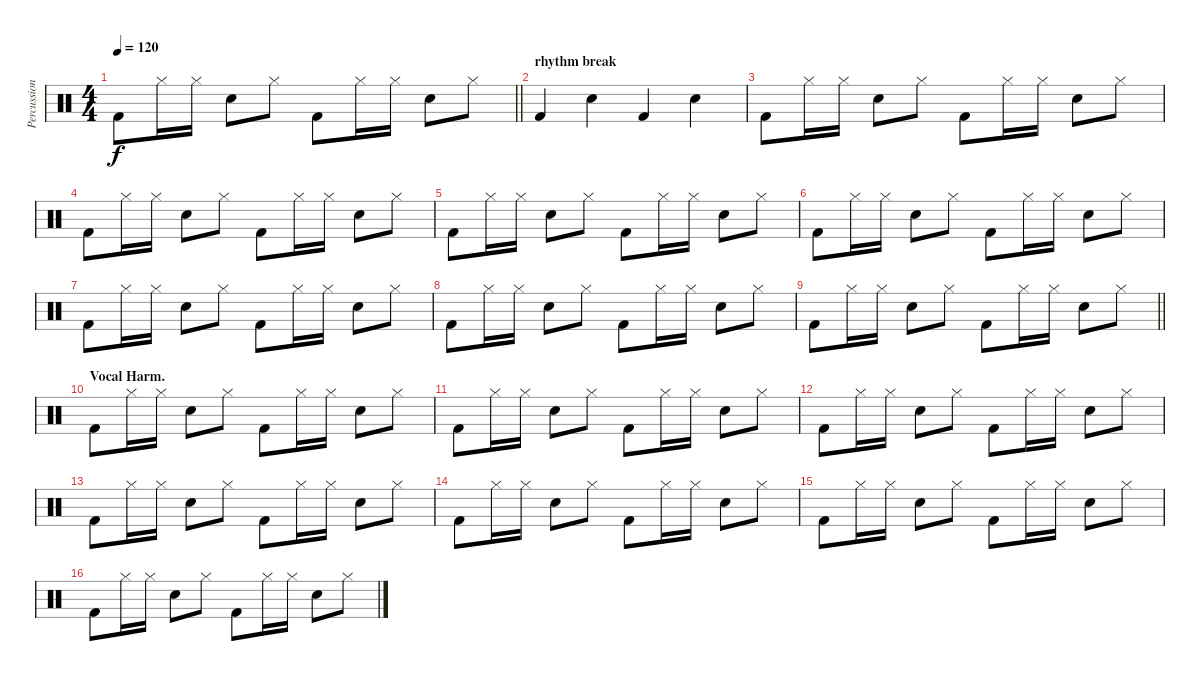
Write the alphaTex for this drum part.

\track ("Percussion" "Percussion") {instrument percussion}
\staff {score}
\articulation defaults
\ts (4 4)
\tempo 120
\clef neutral
\barLineRight lightlight
\ks c "Kick (hit) 2".8{dy f} "Hi-Hat (closed)".16 "Hi-Hat (closed)".16 "Snare (hit) 2".8 "Hi-Hat (closed)".8 "Kick (hit) 2".8 "Hi-Hat (closed)".16 "Hi-Hat (closed)".16 "Snare (hit) 2".8 "Hi-Hat (closed)".8
|
\section ("" "rhythm break")
"Kick (hit) 2".4 "Snare (hit) 2".4 "Kick (hit) 2".4 "Snare (hit) 2".4 |
"Kick (hit) 2".8 "Hi-Hat (closed)".16 "Hi-Hat (closed)".16 "Snare (hit) 2".8 "Hi-Hat (closed)".8 "Kick (hit) 2".8 "Hi-Hat (closed)".16 "Hi-Hat (closed)".16 "Snare (hit) 2".8 "Hi-Hat (closed)".8 |
"Kick (hit) 2".8 "Hi-Hat (closed)".16 "Hi-Hat (closed)".16 "Snare (hit) 2".8 "Hi-Hat (closed)".8 "Kick (hit) 2".8 "Hi-Hat (closed)".16 "Hi-Hat (closed)".16 "Snare (hit) 2".8 "Hi-Hat (closed)".8 |
"Kick (hit) 2".8 "Hi-Hat (closed)".16 "Hi-Hat (closed)".16 "Snare (hit) 2".8 "Hi-Hat (closed)".8 "Kick (hit) 2".8 "Hi-Hat (closed)".16 "Hi-Hat (closed)".16 "Snare (hit) 2".8 "Hi-Hat (closed)".8 |
"Kick (hit) 2".8 "Hi-Hat (closed)".16 "Hi-Hat (closed)".16 "Snare (hit) 2".8 "Hi-Hat (closed)".8 "Kick (hit) 2".8 "Hi-Hat (closed)".16 "Hi-Hat (closed)".16 "Snare (hit) 2".8 "Hi-Hat (closed)".8 |
"Kick (hit) 2".8 "Hi-Hat (closed)".16 "Hi-Hat (closed)".16 "Snare (hit) 2".8 "Hi-Hat (closed)".8 "Kick (hit) 2".8 "Hi-Hat (closed)".16 "Hi-Hat (closed)".16 "Snare (hit) 2".8 "Hi-Hat (closed)".8 |
"Kick (hit) 2".8 "Hi-Hat (closed)".16 "Hi-Hat (closed)".16 "Snare (hit) 2".8 "Hi-Hat (closed)".8 "Kick (hit) 2".8 "Hi-Hat (closed)".16 "Hi-Hat (closed)".16 "Snare (hit) 2".8 "Hi-Hat (closed)".8 |
\barLineRight lightlight "Kick (hit) 2".8 "Hi-Hat (closed)".16 "Hi-Hat (closed)".16 "Snare (hit) 2".8 "Hi-Hat (closed)".8 "Kick (hit) 2".8 "Hi-Hat (closed)".16 "Hi-Hat (closed)".16 "Snare (hit) 2".8 "Hi-Hat (closed)".8
|
\section ("" "Vocal Harm.")
"Kick (hit) 2".8 "Hi-Hat (closed)".16 "Hi-Hat (closed)".16 "Snare (hit) 2".8 "Hi-Hat (closed)".8 "Kick (hit) 2".8 "Hi-Hat (closed)".16 "Hi-Hat (closed)".16 "Snare (hit) 2".8 "Hi-Hat (closed)".8 |
"Kick (hit) 2".8 "Hi-Hat (closed)".16 "Hi-Hat (closed)".16 "Snare (hit) 2".8 "Hi-Hat (closed)".8 "Kick (hit) 2".8 "Hi-Hat (closed)".16 "Hi-Hat (closed)".16 "Snare (hit) 2".8 "Hi-Hat (closed)".8 |
"Kick (hit) 2".8 "Hi-Hat (closed)".16 "Hi-Hat (closed)".16 "Snare (hit) 2".8 "Hi-Hat (closed)".8 "Kick (hit) 2".8 "Hi-Hat (closed)".16 "Hi-Hat (closed)".16 "Snare (hit) 2".8 "Hi-Hat (closed)".8 |
"Kick (hit) 2".8 "Hi-Hat (closed)".16 "Hi-Hat (closed)".16 "Snare (hit) 2".8 "Hi-Hat (closed)".8 "Kick (hit) 2".8 "Hi-Hat (closed)".16 "Hi-Hat (closed)".16 "Snare (hit) 2".8 "Hi-Hat (closed)".8 |
"Kick (hit) 2".8 "Hi-Hat (closed)".16 "Hi-Hat (closed)".16 "Snare (hit) 2".8 "Hi-Hat (closed)".8 "Kick (hit) 2".8 "Hi-Hat (closed)".16 "Hi-Hat (closed)".16 "Snare (hit) 2".8 "Hi-Hat (closed)".8 |
"Kick (hit) 2".8 "Hi-Hat (closed)".16 "Hi-Hat (closed)".16 "Snare (hit) 2".8 "Hi-Hat (closed)".8 "Kick (hit) 2".8 "Hi-Hat (closed)".16 "Hi-Hat (closed)".16 "Snare (hit) 2".8 "Hi-Hat (closed)".8 |
"Kick (hit) 2".8 "Hi-Hat (closed)".16 "Hi-Hat (closed)".16 "Snare (hit) 2".8 "Hi-Hat (closed)".8 "Kick (hit) 2".8 "Hi-Hat (closed)".16 "Hi-Hat (closed)".16 "Snare (hit) 2".8 "Hi-Hat (closed)".8
